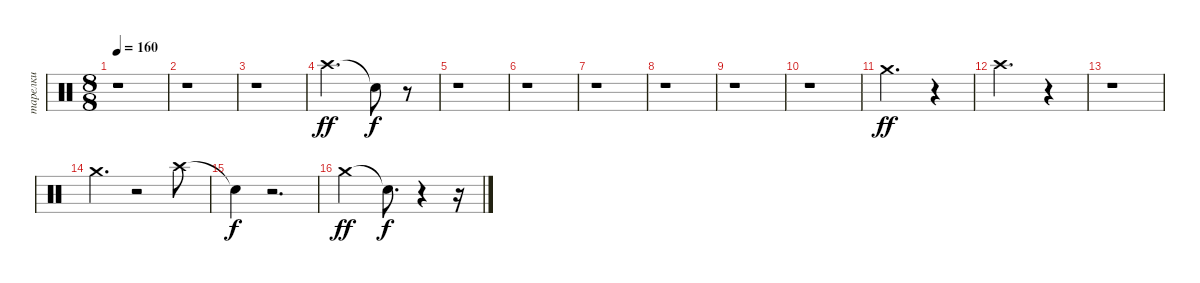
\track ("тарелки" "тарелки") {instrument percussion}
\staff {score}
\articulation defaults
\ts (8 8)
\tempo 160
\clef neutral
\ks c
r.1{dy f} |
r.1 |
r.1 |
"Crash high (hit)".2{d dy ff} "Snare (hit)"{t}.8{dy f} r.8 |
r.1 |
r.1 |
r.1 |
r.1 |
r.1 |
r.1 |
"Crash medium (hit)".2{d dy ff} r.4 |
"Crash high (hit)".2{d} r.4 |
r.1 |
"Crash medium (hit)".4{d} r.2 "Crash high (hit)".8 |
"Snare (hit)"{t}.4{dy f} r.2{d} |
"Crash medium (hit)".2{dy ff} "Snare (hit)"{t}.8{d dy f} r.4 r.16
